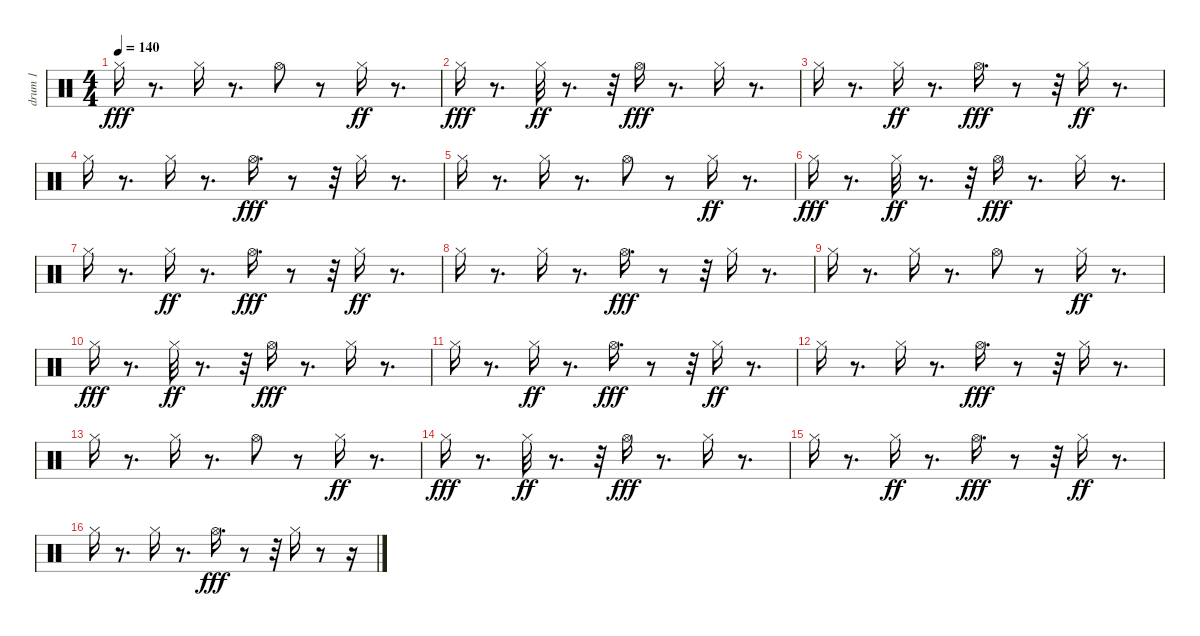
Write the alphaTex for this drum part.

\track ("drum 1" "drum 1") {instrument percussion}
\staff {score}
\articulation defaults
\ts (4 4)
\tempo 140
\clef neutral
\ks c "Hi-Hat (closed)".16{dy fff}
r.8{d} "Hi-Hat (closed)".16 r.8{d} "Hi-Hat (open)".8 r.8 "Hi-Hat (closed)".16{dy ff} r.8{d} |
"Hi-Hat (closed)".16{dy fff} r.8{d} "Hi-Hat (closed)".32{dy ff} r.8{d} r.32 "Hi-Hat (open)".16{dy fff} r.8{d} "Hi-Hat (closed)".16 r.8{d} |
"Hi-Hat (closed)".16 r.8{d} "Hi-Hat (closed)".16{dy ff} r.8{d} "Hi-Hat (open)".16{d dy fff} r.8 r.32 "Hi-Hat (closed)".16{dy ff} r.8{d} |
"Hi-Hat (closed)".16 r.8{d} "Hi-Hat (closed)".16 r.8{d} "Hi-Hat (open)".16{d dy fff} r.8 r.32 "Hi-Hat (closed)".16 r.8{d} |
"Hi-Hat (closed)".16 r.8{d} "Hi-Hat (closed)".16 r.8{d} "Hi-Hat (open)".8 r.8 "Hi-Hat (closed)".16{dy ff} r.8{d} |
"Hi-Hat (closed)".16{dy fff} r.8{d} "Hi-Hat (closed)".32{dy ff} r.8{d} r.32 "Hi-Hat (open)".16{dy fff} r.8{d} "Hi-Hat (closed)".16 r.8{d} |
"Hi-Hat (closed)".16 r.8{d} "Hi-Hat (closed)".16{dy ff} r.8{d} "Hi-Hat (open)".16{d dy fff} r.8 r.32 "Hi-Hat (closed)".16{dy ff} r.8{d} |
"Hi-Hat (closed)".16 r.8{d} "Hi-Hat (closed)".16 r.8{d} "Hi-Hat (open)".16{d dy fff} r.8 r.32 "Hi-Hat (closed)".16 r.8{d} |
"Hi-Hat (closed)".16 r.8{d} "Hi-Hat (closed)".16 r.8{d} "Hi-Hat (open)".8 r.8 "Hi-Hat (closed)".16{dy ff} r.8{d} |
"Hi-Hat (closed)".16{dy fff} r.8{d} "Hi-Hat (closed)".32{dy ff} r.8{d} r.32 "Hi-Hat (open)".16{dy fff} r.8{d} "Hi-Hat (closed)".16 r.8{d} |
"Hi-Hat (closed)".16 r.8{d} "Hi-Hat (closed)".16{dy ff} r.8{d} "Hi-Hat (open)".16{d dy fff} r.8 r.32 "Hi-Hat (closed)".16{dy ff} r.8{d} |
"Hi-Hat (closed)".16 r.8{d} "Hi-Hat (closed)".16 r.8{d} "Hi-Hat (open)".16{d dy fff} r.8 r.32 "Hi-Hat (closed)".16 r.8{d} |
"Hi-Hat (closed)".16 r.8{d} "Hi-Hat (closed)".16 r.8{d} "Hi-Hat (open)".8 r.8 "Hi-Hat (closed)".16{dy ff} r.8{d} |
"Hi-Hat (closed)".16{dy fff} r.8{d} "Hi-Hat (closed)".32{dy ff} r.8{d} r.32 "Hi-Hat (open)".16{dy fff} r.8{d} "Hi-Hat (closed)".16 r.8{d} |
"Hi-Hat (closed)".16 r.8{d} "Hi-Hat (closed)".16{dy ff} r.8{d} "Hi-Hat (open)".16{d dy fff} r.8 r.32 "Hi-Hat (closed)".16{dy ff} r.8{d} |
"Hi-Hat (closed)".16 r.8{d} "Hi-Hat (closed)".16 r.8{d} "Hi-Hat (open)".16{d dy fff} r.8 r.32 "Hi-Hat (closed)".16 r.8 r.16
